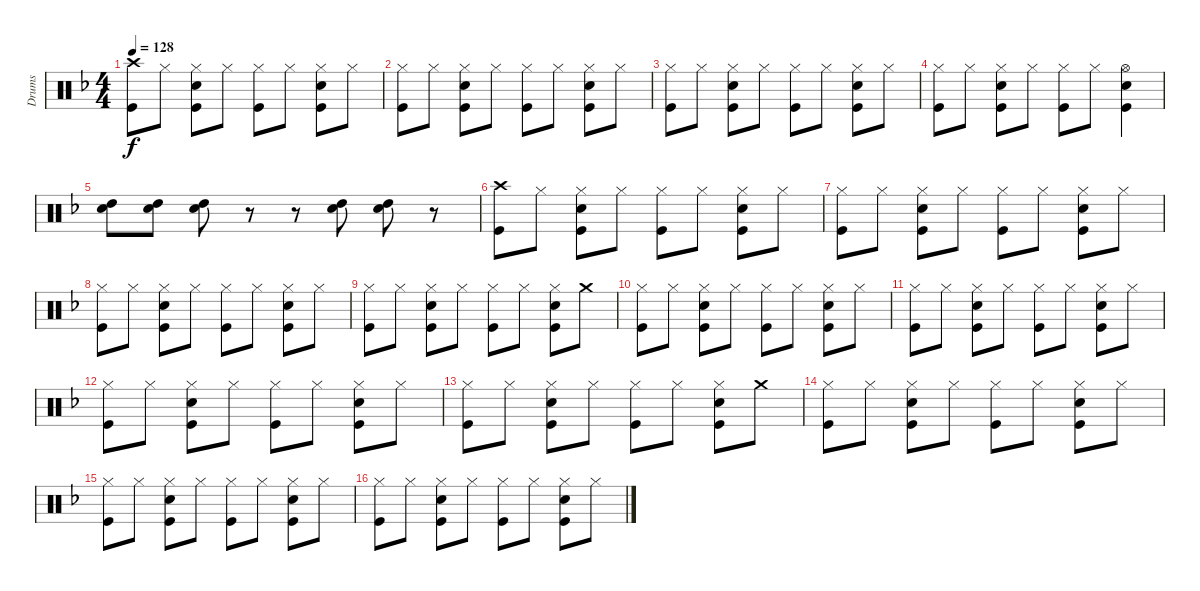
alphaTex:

\track ("Drums" "Drums") {instrument percussion}
\staff {score}
\articulation defaults
\ts (4 4)
\tempo 128
\clef neutral
\ks f
("Crash high (hit)" "Kick (hit)").8{dy f} "Hi-Hat (closed)".8 ("Hi-Hat (closed)" "Snare (hit) 2" "Kick (hit)").8 "Hi-Hat (closed)".8 ("Hi-Hat (closed)" "Kick (hit)").8 "Hi-Hat (closed)".8 ("Hi-Hat (closed)" "Snare (hit) 2" "Kick (hit)").8 "Hi-Hat (closed)".8 |
("Hi-Hat (closed)" "Kick (hit)").8 "Hi-Hat (closed)".8 ("Hi-Hat (closed)" "Snare (hit) 2" "Kick (hit)").8 "Hi-Hat (closed)".8 ("Hi-Hat (closed)" "Kick (hit)").8 "Hi-Hat (closed)".8 ("Hi-Hat (closed)" "Snare (hit) 2" "Kick (hit)").8 "Hi-Hat (closed)".8 |
("Hi-Hat (closed)" "Kick (hit)").8 "Hi-Hat (closed)".8 ("Hi-Hat (closed)" "Snare (hit) 2" "Kick (hit)").8 "Hi-Hat (closed)".8 ("Hi-Hat (closed)" "Kick (hit)").8 "Hi-Hat (closed)".8 ("Hi-Hat (closed)" "Snare (hit) 2" "Kick (hit)").8 "Hi-Hat (closed)".8 |
("Hi-Hat (closed)" "Kick (hit)").8 "Hi-Hat (closed)".8 ("Hi-Hat (closed)" "Snare (hit) 2" "Kick (hit)").8 "Hi-Hat (closed)".8 ("Hi-Hat (closed)" "Kick (hit)").8 "Hi-Hat (closed)".8 ("Hi-Hat (open)" "Snare (hit) 2" "Kick (hit)").4 |
("High Tom (hit)" "Snare (hit) 2").8 ("High Tom (hit)" "Snare (hit) 2").8 ("High Tom (hit)" "Snare (hit) 2").8 r.8 r.8 ("High Tom (hit)" "Snare (hit) 2").8 ("High Tom (hit)" "Snare (hit) 2").8 r.8 |
("Crash high (hit)" "Kick (hit)").8 "Hi-Hat (closed)".8 ("Hi-Hat (closed)" "Snare (hit) 2" "Kick (hit)").8 "Hi-Hat (closed)".8 ("Hi-Hat (closed)" "Kick (hit)").8 "Hi-Hat (closed)".8 ("Hi-Hat (closed)" "Snare (hit) 2" "Kick (hit)").8 "Hi-Hat (closed)".8 |
("Hi-Hat (closed)" "Kick (hit)").8 "Hi-Hat (closed)".8 ("Hi-Hat (closed)" "Snare (hit) 2" "Kick (hit)").8 "Hi-Hat (closed)".8 ("Hi-Hat (closed)" "Kick (hit)").8 "Hi-Hat (closed)".8 ("Hi-Hat (closed)" "Snare (hit) 2" "Kick (hit)").8 "Hi-Hat (closed)".8 |
("Hi-Hat (closed)" "Kick (hit)").8 "Hi-Hat (closed)".8 ("Hi-Hat (closed)" "Snare (hit) 2" "Kick (hit)").8 "Hi-Hat (closed)".8 ("Hi-Hat (closed)" "Kick (hit)").8 "Hi-Hat (closed)".8 ("Hi-Hat (closed)" "Snare (hit) 2" "Kick (hit)").8 "Hi-Hat (closed)".8 |
("Hi-Hat (closed)" "Kick (hit)").8 "Hi-Hat (closed)".8 ("Hi-Hat (closed)" "Snare (hit) 2" "Kick (hit)").8 "Hi-Hat (closed)".8 ("Hi-Hat (closed)" "Kick (hit)").8 "Hi-Hat (closed)".8 ("Hi-Hat (closed)" "Snare (hit) 2" "Kick (hit)").8 "Crash medium (hit)".8 |
("Hi-Hat (closed)" "Kick (hit)").8 "Hi-Hat (closed)".8 ("Hi-Hat (closed)" "Snare (hit) 2" "Kick (hit)").8 "Hi-Hat (closed)".8 ("Hi-Hat (closed)" "Kick (hit)").8 "Hi-Hat (closed)".8 ("Hi-Hat (closed)" "Snare (hit) 2" "Kick (hit)").8 "Hi-Hat (closed)".8 |
("Hi-Hat (closed)" "Kick (hit)").8 "Hi-Hat (closed)".8 ("Hi-Hat (closed)" "Snare (hit) 2" "Kick (hit)").8 "Hi-Hat (closed)".8 ("Hi-Hat (closed)" "Kick (hit)").8 "Hi-Hat (closed)".8 ("Hi-Hat (closed)" "Snare (hit) 2" "Kick (hit)").8 "Hi-Hat (closed)".8 |
("Hi-Hat (closed)" "Kick (hit)").8 "Hi-Hat (closed)".8 ("Hi-Hat (closed)" "Snare (hit) 2" "Kick (hit)").8 "Hi-Hat (closed)".8 ("Hi-Hat (closed)" "Kick (hit)").8 "Hi-Hat (closed)".8 ("Hi-Hat (closed)" "Snare (hit) 2" "Kick (hit)").8 "Hi-Hat (closed)".8 |
("Hi-Hat (closed)" "Kick (hit)").8 "Hi-Hat (closed)".8 ("Hi-Hat (closed)" "Snare (hit) 2" "Kick (hit)").8 "Hi-Hat (closed)".8 ("Hi-Hat (closed)" "Kick (hit)").8 "Hi-Hat (closed)".8 ("Hi-Hat (closed)" "Snare (hit) 2" "Kick (hit)").8 "Crash medium (hit)".8 |
("Hi-Hat (closed)" "Kick (hit)").8 "Hi-Hat (closed)".8 ("Hi-Hat (closed)" "Snare (hit) 2" "Kick (hit)").8 "Hi-Hat (closed)".8 ("Hi-Hat (closed)" "Kick (hit)").8 "Hi-Hat (closed)".8 ("Hi-Hat (closed)" "Snare (hit) 2" "Kick (hit)").8 "Hi-Hat (closed)".8 |
("Hi-Hat (closed)" "Kick (hit)").8 "Hi-Hat (closed)".8 ("Hi-Hat (closed)" "Snare (hit) 2" "Kick (hit)").8 "Hi-Hat (closed)".8 ("Hi-Hat (closed)" "Kick (hit)").8 "Hi-Hat (closed)".8 ("Hi-Hat (closed)" "Snare (hit) 2" "Kick (hit)").8 "Hi-Hat (closed)".8 |
("Hi-Hat (closed)" "Kick (hit)").8 "Hi-Hat (closed)".8 ("Hi-Hat (closed)" "Snare (hit) 2" "Kick (hit)").8 "Hi-Hat (closed)".8 ("Hi-Hat (closed)" "Kick (hit)").8 "Hi-Hat (closed)".8 ("Hi-Hat (closed)" "Snare (hit) 2" "Kick (hit)").8 "Hi-Hat (closed)".8
